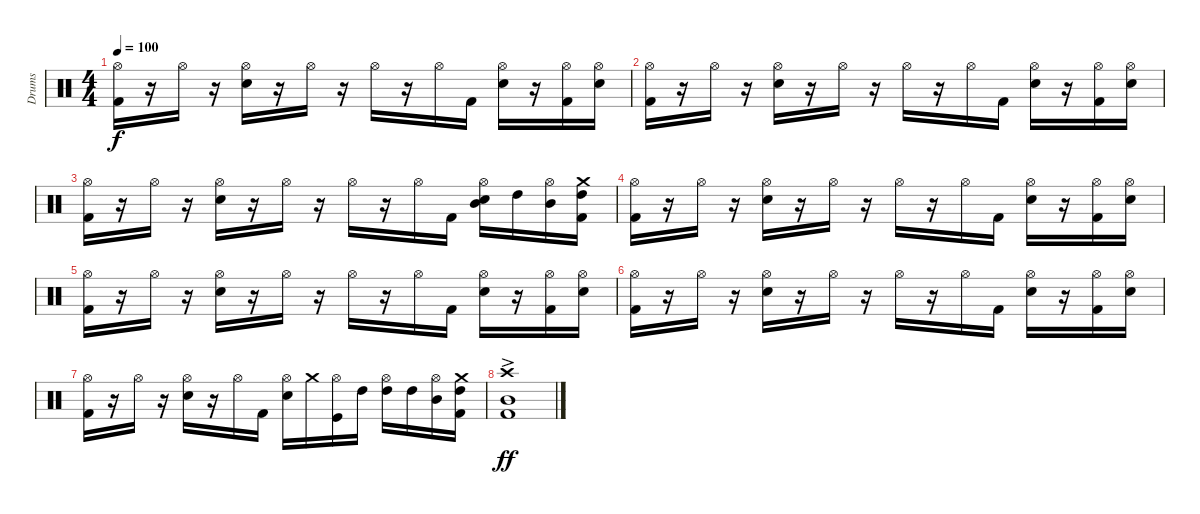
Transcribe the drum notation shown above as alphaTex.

\track ("Drums" "Drums") {instrument percussion}
\staff {score}
\articulation defaults
\ts (4 4)
\tempo 100
\clef neutral
\ks c
("Hi-Hat (open)" "Kick (hit) 2").16{dy f} r.16 "Hi-Hat (open)".16 r.16 ("Hi-Hat (open)" "Snare (hit) 2").16 r.16 "Hi-Hat (open)".16 r.16 "Hi-Hat (open)".16 r.16 "Hi-Hat (open)".16 "Kick (hit) 2".16 ("Hi-Hat (open)" "Snare (hit) 2").16 r.16 ("Hi-Hat (open)" "Kick (hit) 2").16 ("Hi-Hat (open)" "Snare (hit) 2").16 |
("Hi-Hat (open)" "Kick (hit) 2").16 r.16 "Hi-Hat (open)".16 r.16 ("Hi-Hat (open)" "Snare (hit) 2").16 r.16 "Hi-Hat (open)".16 r.16 "Hi-Hat (open)".16 r.16 "Hi-Hat (open)".16 "Kick (hit) 2".16 ("Hi-Hat (open)" "Snare (hit) 2").16 r.16 ("Hi-Hat (open)" "Kick (hit) 2").16 ("Hi-Hat (open)" "Snare (hit) 2").16 |
("Hi-Hat (open)" "Kick (hit) 2").16 r.16 "Hi-Hat (open)".16 r.16 ("Hi-Hat (open)" "Snare (hit) 2").16 r.16 "Hi-Hat (open)".16 r.16 "Hi-Hat (open)".16 r.16 "Hi-Hat (open)".16 "Kick (hit) 2".16 ("Hi-Hat (open)" "Mid Tom (hit)" "Snare (hit) 2").16 "High Tom (hit)".16 ("Hi-Hat (open)" "Mid Tom (hit)").16 ("Crash medium (hit)" "Kick (hit) 2" "High Tom (hit)").16 |
("Hi-Hat (open)" "Kick (hit) 2").16 r.16 "Hi-Hat (open)".16 r.16 ("Hi-Hat (open)" "Snare (hit) 2").16 r.16 "Hi-Hat (open)".16 r.16 "Hi-Hat (open)".16 r.16 "Hi-Hat (open)".16 "Kick (hit) 2".16 ("Hi-Hat (open)" "Snare (hit) 2").16 r.16 ("Hi-Hat (open)" "Kick (hit) 2").16 ("Hi-Hat (open)" "Snare (hit) 2").16 |
("Hi-Hat (open)" "Kick (hit) 2").16 r.16 "Hi-Hat (open)".16 r.16 ("Hi-Hat (open)" "Snare (hit) 2").16 r.16 "Hi-Hat (open)".16 r.16 "Hi-Hat (open)".16 r.16 "Hi-Hat (open)".16 "Kick (hit) 2".16 ("Hi-Hat (open)" "Snare (hit) 2").16 r.16 ("Hi-Hat (open)" "Kick (hit) 2").16 ("Hi-Hat (open)" "Snare (hit) 2").16 |
("Hi-Hat (open)" "Kick (hit) 2").16 r.16 "Hi-Hat (open)".16 r.16 ("Hi-Hat (open)" "Snare (hit) 2").16 r.16 "Hi-Hat (open)".16 r.16 "Hi-Hat (open)".16 r.16 "Hi-Hat (open)".16 "Kick (hit) 2".16 ("Hi-Hat (open)" "Snare (hit) 2").16 r.16 ("Hi-Hat (open)" "Kick (hit) 2").16 ("Hi-Hat (open)" "Snare (hit) 2").16 |
("Hi-Hat (open)" "Kick (hit) 2").16 r.16 "Hi-Hat (open)".16 r.16 ("Hi-Hat (open)" "Snare (hit) 2").16 r.16 "Hi-Hat (open)".16 "Kick (hit) 2".16 ("Hi-Hat (open)" "Snare (hit) 2").16 "Crash medium (hit)".16 ("Hi-Hat (open)" "Kick (hit)").16 "High Tom (hit)".16 ("Hi-Hat (open)" "High Tom (hit)").16 "High Tom (hit)".16 ("Hi-Hat (open)" "Mid Tom (hit)").16 ("Crash medium (hit)" "Kick (hit) 2" "High Tom (hit)").16 |
("Mid Tom (hit)" "Kick (hit) 2"{ac} "Crash high (hit)").1{dy ff}
